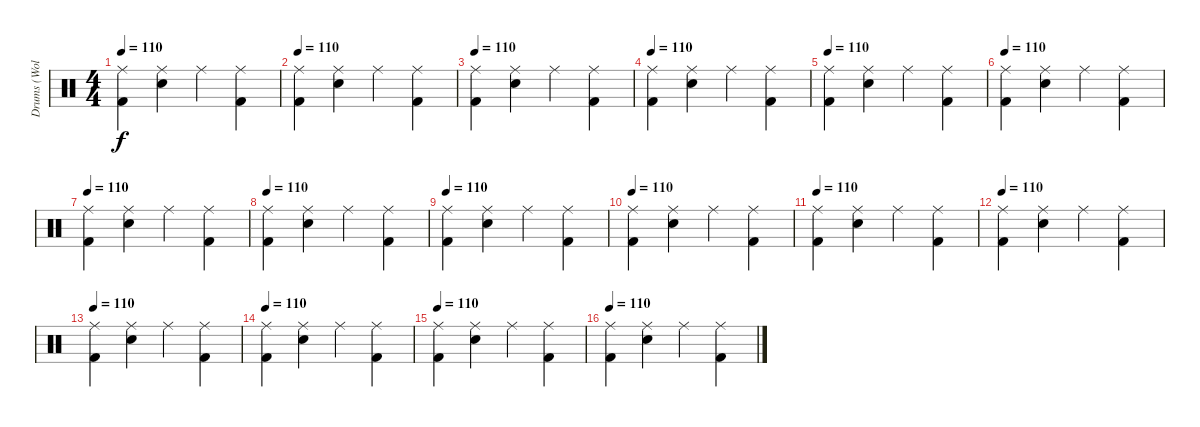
\track ("Drums (Wolf Simons)" "Drums (Wol") {instrument percussion}
\staff {score}
\articulation defaults
\ts (4 4)
\tempo 110
\clef neutral
\ks c
("Ride (middle)" "Kick (hit) 2").4{dy f} ("Ride (middle)" "Snare (hit) 2").4 "Ride (middle)".4 ("Ride (middle)" "Kick (hit) 2").4 |
\tempo 110
("Ride (middle)" "Kick (hit) 2").4 ("Ride (middle)" "Snare (hit) 2").4 "Ride (middle)".4 ("Ride (middle)" "Kick (hit) 2").4 |
\tempo 110
("Ride (middle)" "Kick (hit) 2").4 ("Ride (middle)" "Snare (hit) 2").4 "Ride (middle)".4 ("Ride (middle)" "Kick (hit) 2").4 |
\tempo 110
("Ride (middle)" "Kick (hit) 2").4 ("Ride (middle)" "Snare (hit) 2").4 "Ride (middle)".4 ("Ride (middle)" "Kick (hit) 2").4 |
\tempo 110
("Ride (middle)" "Kick (hit) 2").4 ("Ride (middle)" "Snare (hit) 2").4 "Ride (middle)".4 ("Ride (middle)" "Kick (hit) 2").4 |
\tempo 110
("Ride (middle)" "Kick (hit) 2").4 ("Ride (middle)" "Snare (hit) 2").4 "Ride (middle)".4 ("Ride (middle)" "Kick (hit) 2").4 |
\tempo 110
("Ride (middle)" "Kick (hit) 2").4 ("Ride (middle)" "Snare (hit) 2").4 "Ride (middle)".4 ("Ride (middle)" "Kick (hit) 2").4 |
\tempo 110
("Ride (middle)" "Kick (hit) 2").4 ("Ride (middle)" "Snare (hit) 2").4 "Ride (middle)".4 ("Ride (middle)" "Kick (hit) 2").4 |
\tempo 110
("Ride (middle)" "Kick (hit) 2").4 ("Ride (middle)" "Snare (hit) 2").4 "Ride (middle)".4 ("Ride (middle)" "Kick (hit) 2").4 |
\tempo 110
("Ride (middle)" "Kick (hit) 2").4 ("Ride (middle)" "Snare (hit) 2").4 "Ride (middle)".4 ("Ride (middle)" "Kick (hit) 2").4 |
\tempo 110
("Ride (middle)" "Kick (hit) 2").4 ("Ride (middle)" "Snare (hit) 2").4 "Ride (middle)".4 ("Ride (middle)" "Kick (hit) 2").4 |
\tempo 110
("Ride (middle)" "Kick (hit) 2").4 ("Ride (middle)" "Snare (hit) 2").4 "Ride (middle)".4 ("Ride (middle)" "Kick (hit) 2").4 |
\tempo 110
("Ride (middle)" "Kick (hit) 2").4 ("Ride (middle)" "Snare (hit) 2").4 "Ride (middle)".4 ("Ride (middle)" "Kick (hit) 2").4 |
\tempo 110
("Ride (middle)" "Kick (hit) 2").4 ("Ride (middle)" "Snare (hit) 2").4 "Ride (middle)".4 ("Ride (middle)" "Kick (hit) 2").4 |
\tempo 110
("Ride (middle)" "Kick (hit) 2").4 ("Ride (middle)" "Snare (hit) 2").4 "Ride (middle)".4 ("Ride (middle)" "Kick (hit) 2").4 |
\tempo 110
("Ride (middle)" "Kick (hit) 2").4 ("Ride (middle)" "Snare (hit) 2").4 "Ride (middle)".4 ("Ride (middle)" "Kick (hit) 2").4
